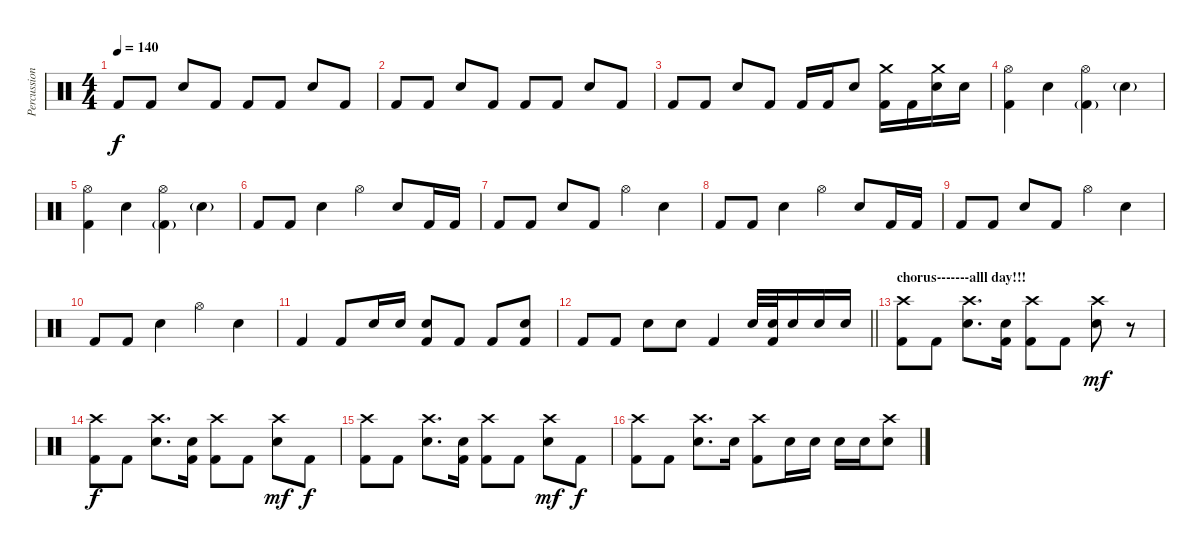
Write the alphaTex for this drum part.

\track ("Percussion" "Percussion") {instrument percussion}
\staff {score}
\articulation defaults
\ts (4 4)
\tempo 140
\clef neutral
\ks c "Kick (hit) 2".8{dy f} "Kick (hit) 2".8 "Electric Snare (hit)".8 "Kick (hit) 2".8 "Kick (hit) 2".8 "Kick (hit) 2".8 "Electric Snare (hit)".8 "Kick (hit) 2".8
|
"Kick (hit) 2".8 "Kick (hit) 2".8 "Electric Snare (hit)".8 "Kick (hit) 2".8 "Kick (hit) 2".8 "Kick (hit) 2".8 "Electric Snare (hit)".8 "Kick (hit) 2".8 |
"Kick (hit) 2".8 "Kick (hit) 2".8 "Electric Snare (hit)".8 "Kick (hit) 2".8 "Kick (hit) 2".16 "Kick (hit) 2".16 "Electric Snare (hit)".8 ("Kick (hit) 2" "Crash medium (hit)").16 "Kick (hit) 2".16 ("Electric Snare (hit)" "Crash medium (hit)").16 "Electric Snare (hit)".16 |
("Kick (hit) 2" "Hi-Hat (open)").4 "Electric Snare (hit)".4 ("Kick (hit) 2"{g} "Hi-Hat (open)").4 "Electric Snare (hit)"{g}.4 |
("Kick (hit) 2" "Hi-Hat (open)").4 "Electric Snare (hit)".4 ("Kick (hit) 2"{g} "Hi-Hat (open)").4 "Electric Snare (hit)"{g}.4 |
"Kick (hit) 2".8 "Kick (hit) 2".8 "Electric Snare (hit)".4 "Hi-Hat (open)".4 "Electric Snare (hit)".8 "Kick (hit) 2".16 "Kick (hit) 2".16 |
"Kick (hit) 2".8 "Kick (hit) 2".8 "Electric Snare (hit)".8 "Kick (hit) 2".8 "Hi-Hat (open)".4 "Electric Snare (hit)".4 |
"Kick (hit) 2".8 "Kick (hit) 2".8 "Electric Snare (hit)".4 "Hi-Hat (open)".4 "Electric Snare (hit)".8 "Kick (hit) 2".16 "Kick (hit) 2".16 |
"Kick (hit) 2".8 "Kick (hit) 2".8 "Electric Snare (hit)".8 "Kick (hit) 2".8 "Hi-Hat (open)".4 "Electric Snare (hit)".4 |
"Kick (hit) 2".8 "Kick (hit) 2".8 "Electric Snare (hit)".4 "Hi-Hat (open)".4 "Electric Snare (hit)".4 |
"Kick (hit) 2".4 "Kick (hit) 2".8 "Electric Snare (hit)".16 "Electric Snare (hit)".16 ("Kick (hit) 2" "Electric Snare (hit)").8 "Kick (hit) 2".8 "Kick (hit) 2".8 ("Kick (hit) 2" "Electric Snare (hit)").8 |
\barLineRight lightlight "Kick (hit) 2".8 "Kick (hit) 2".8 "Electric Snare (hit)".8 "Electric Snare (hit)".8 "Kick (hit) 2".4 "Electric Snare (hit)".32
("Kick (hit) 2" "Electric Snare (hit)").32 "Electric Snare (hit)".16 "Electric Snare (hit)".16 "Electric Snare (hit)".16 |
\section ("" "chorus-------alll day!!!")
("Kick (hit) 2" "Crash high (hit)").8 "Kick (hit) 2".8 ("Electric Snare (hit)" "Crash high (hit)").8{d} ("Kick (hit) 2" "Electric Snare (hit)").16 ("Kick (hit) 2" "Crash high (hit)").8 "Kick (hit) 2".8 ("Electric Snare (hit)" "Crash high (hit)").8{dy mf} r.8 |
("Kick (hit) 2" "Crash high (hit)").8{dy f} "Kick (hit) 2".8 ("Electric Snare (hit)" "Crash high (hit)").8{d} ("Kick (hit) 2" "Electric Snare (hit)").16 ("Kick (hit) 2" "Crash high (hit)").8 "Kick (hit) 2".8 ("Electric Snare (hit)" "Crash high (hit)").8{dy mf} "Kick (hit) 2".8{dy f} |
("Kick (hit) 2" "Crash high (hit)").8 "Kick (hit) 2".8 ("Electric Snare (hit)" "Crash high (hit)").8{d} ("Kick (hit) 2" "Electric Snare (hit)").16 ("Kick (hit) 2" "Crash high (hit)").8 "Kick (hit) 2".8 ("Electric Snare (hit)" "Crash high (hit)").8{dy mf} "Kick (hit) 2".8{dy f} |
("Kick (hit) 2" "Crash high (hit)").8 "Kick (hit) 2".8 ("Electric Snare (hit)" "Crash high (hit)").8{d} "Electric Snare (hit)".16 ("Kick (hit) 2" "Crash high (hit)").8 "Electric Snare (hit)".16 "Electric Snare (hit)".16 "Electric Snare (hit)".16 "Electric Snare (hit)".16 ("Electric Snare (hit)" "Crash high (hit)").8
